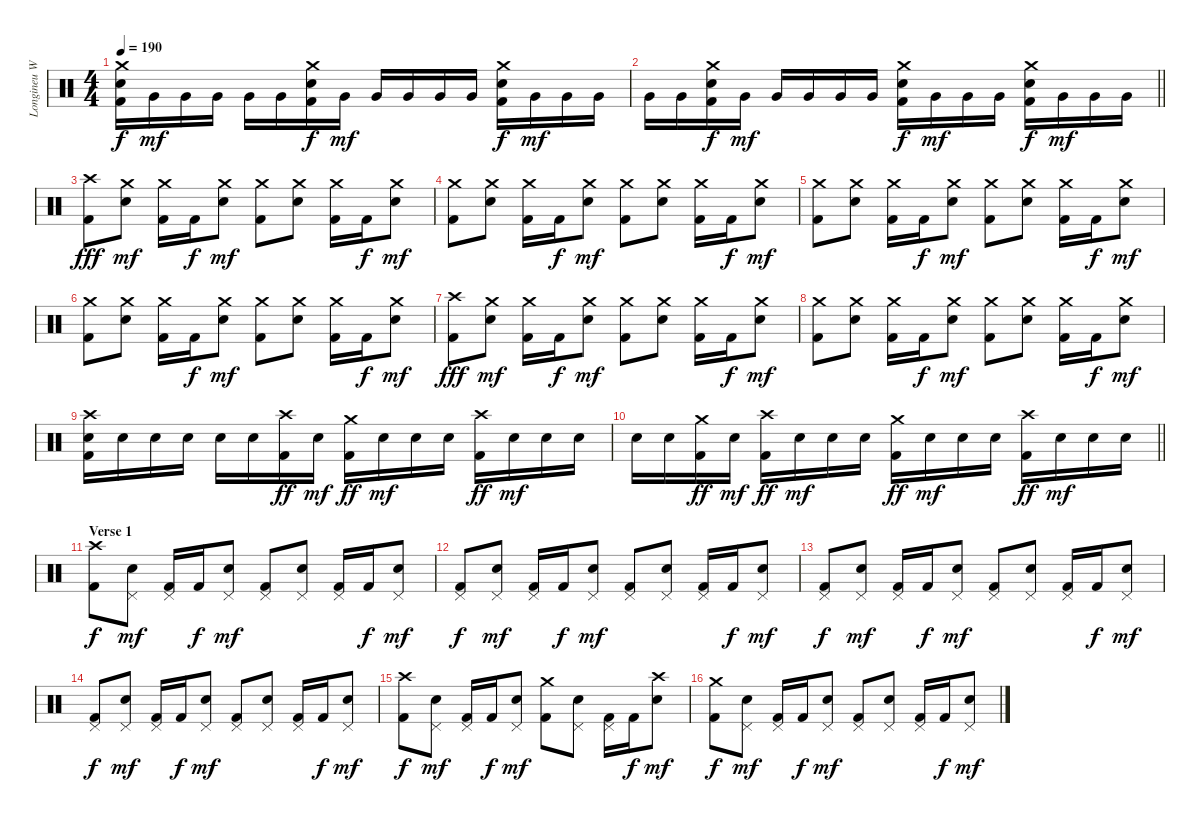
\track ("Longineu W. Parsons III" "Longineu W") {instrument percussion}
\staff {score}
\articulation defaults
\ts (4 4)
\tempo 190
\clef neutral
\ks c
("Crash medium (hit)" "Electric Snare (hit)" "Kick (hit) 2").16{dy f} "Very Low Tom (hit)".16{dy mf} "Very Low Tom (hit)".16 "Very Low Tom (hit)".16 "Very Low Tom (hit)".16 "Very Low Tom (hit)".16 ("Crash medium (hit)" "Electric Snare (hit)" "Kick (hit) 2").16{dy f} "Very Low Tom (hit)".16{dy mf} "Very Low Tom (hit)".16 "Very Low Tom (hit)".16 "Very Low Tom (hit)".16 "Very Low Tom (hit)".16 ("Crash medium (hit)" "Electric Snare (hit)" "Kick (hit) 2").16{dy f} "Very Low Tom (hit)".16{dy mf} "Very Low Tom (hit)".16 "Very Low Tom (hit)".16 |
\barLineRight lightlight "Very Low Tom (hit)".16 "Very Low Tom (hit)".16
("Crash medium (hit)" "Electric Snare (hit)" "Kick (hit) 2").16{dy f} "Very Low Tom (hit)".16{dy mf} "Very Low Tom (hit)".16 "Very Low Tom (hit)".16 "Very Low Tom (hit)".16 "Very Low Tom (hit)".16 ("Crash medium (hit)" "Electric Snare (hit)" "Kick (hit) 2").16{dy f} "Very Low Tom (hit)".16{dy mf} "Very Low Tom (hit)".16 "Very Low Tom (hit)".16 ("Crash medium (hit)" "Electric Snare (hit)" "Kick (hit) 2").16{dy f} "Very Low Tom (hit)".16{dy mf} "Very Low Tom (hit)".16 "Very Low Tom (hit)".16 |
("Crash high (hit)" "Kick (hit) 2").8{dy fff} ("Crash medium (hit)" "Electric Snare (hit)").8{dy mf} ("Crash medium (hit)" "Kick (hit) 2").16 "Kick (hit) 2".16{dy f} ("Crash medium (hit)" "Electric Snare (hit)").8{dy mf} ("Crash medium (hit)" "Kick (hit) 2").8 ("Crash medium (hit)" "Electric Snare (hit)").8 ("Crash medium (hit)" "Kick (hit) 2").16 "Kick (hit) 2".16{dy f} ("Crash medium (hit)" "Electric Snare (hit)").8{dy mf} |
("Crash medium (hit)" "Kick (hit) 2").8 ("Crash medium (hit)" "Electric Snare (hit)").8 ("Crash medium (hit)" "Kick (hit) 2").16 "Kick (hit) 2".16{dy f} ("Crash medium (hit)" "Electric Snare (hit)").8{dy mf} ("Crash medium (hit)" "Kick (hit) 2").8 ("Crash medium (hit)" "Electric Snare (hit)").8 ("Crash medium (hit)" "Kick (hit) 2").16 "Kick (hit) 2".16{dy f} ("Crash medium (hit)" "Electric Snare (hit)").8{dy mf} |
("Crash medium (hit)" "Kick (hit) 2").8 ("Crash medium (hit)" "Electric Snare (hit)").8 ("Crash medium (hit)" "Kick (hit) 2").16 "Kick (hit) 2".16{dy f} ("Crash medium (hit)" "Electric Snare (hit)").8{dy mf} ("Crash medium (hit)" "Kick (hit) 2").8 ("Crash medium (hit)" "Electric Snare (hit)").8 ("Crash medium (hit)" "Kick (hit) 2").16 "Kick (hit) 2".16{dy f} ("Crash medium (hit)" "Electric Snare (hit)").8{dy mf} |
("Crash medium (hit)" "Kick (hit) 2").8 ("Crash medium (hit)" "Electric Snare (hit)").8 ("Crash medium (hit)" "Kick (hit) 2").16 "Kick (hit) 2".16{dy f} ("Crash medium (hit)" "Electric Snare (hit)").8{dy mf} ("Crash medium (hit)" "Kick (hit) 2").8 ("Crash medium (hit)" "Electric Snare (hit)").8 ("Crash medium (hit)" "Kick (hit) 2").16 "Kick (hit) 2".16{dy f} ("Crash medium (hit)" "Electric Snare (hit)").8{dy mf} |
("Crash high (hit)" "Kick (hit) 2").8{dy fff} ("Crash medium (hit)" "Electric Snare (hit)").8{dy mf} ("Crash medium (hit)" "Kick (hit) 2").16 "Kick (hit) 2".16{dy f} ("Crash medium (hit)" "Electric Snare (hit)").8{dy mf} ("Crash medium (hit)" "Kick (hit) 2").8 ("Crash medium (hit)" "Electric Snare (hit)").8 ("Crash medium (hit)" "Kick (hit) 2").16 "Kick (hit) 2".16{dy f} ("Crash medium (hit)" "Electric Snare (hit)").8{dy mf} |
("Crash medium (hit)" "Kick (hit) 2").8 ("Crash medium (hit)" "Electric Snare (hit)").8 ("Crash medium (hit)" "Kick (hit) 2").16 "Kick (hit) 2".16{dy f} ("Crash medium (hit)" "Electric Snare (hit)").8{dy mf} ("Crash medium (hit)" "Kick (hit) 2").8 ("Crash medium (hit)" "Electric Snare (hit)").8 ("Crash medium (hit)" "Kick (hit) 2").16 "Kick (hit) 2".16{dy f} ("Crash medium (hit)" "Electric Snare (hit)").8{dy mf} |
("Crash high (hit)" "Electric Snare (hit)" "Kick (hit) 2").16 "Electric Snare (hit)".16 "Electric Snare (hit)".16 "Electric Snare (hit)".16 "Electric Snare (hit)".16 "Electric Snare (hit)".16 ("Crash high (hit)" "Kick (hit) 2").16{dy ff} "Electric Snare (hit)".16{dy mf} ("Crash medium (hit)" "Kick (hit) 2").16{dy ff} "Electric Snare (hit)".16{dy mf} "Electric Snare (hit)".16 "Electric Snare (hit)".16 ("Crash high (hit)" "Kick (hit) 2").16{dy ff} "Electric Snare (hit)".16{dy mf} "Electric Snare (hit)".16 "Electric Snare (hit)".16 |
\barLineRight lightlight "Electric Snare (hit)".16 "Electric Snare (hit)".16
("Crash medium (hit)" "Kick (hit) 2").16{dy ff} "Electric Snare (hit)".16{dy mf} ("Crash high (hit)" "Kick (hit) 2").16{dy ff} "Electric Snare (hit)".16{dy mf} "Electric Snare (hit)".16 "Electric Snare (hit)".16 ("Crash medium (hit)" "Kick (hit) 2").16{dy ff} "Electric Snare (hit)".16{dy mf} "Electric Snare (hit)".16 "Electric Snare (hit)".16 ("Crash high (hit)" "Kick (hit) 2").16{dy ff} "Electric Snare (hit)".16{dy mf} "Electric Snare (hit)".16 "Electric Snare (hit)".16 |
\section ("" "Verse 1")
("Crash high (hit)" "Kick (hit) 2").8{dy f} ("Pedal Hi-Hat (hit)" "Electric Snare (hit)").8{dy mf} ("Pedal Hi-Hat (hit)" "Kick (hit) 2").16 "Kick (hit) 2".16{dy f} ("Pedal Hi-Hat (hit)" "Electric Snare (hit)").8{dy mf} ("Pedal Hi-Hat (hit)" "Kick (hit) 2").8 ("Pedal Hi-Hat (hit)" "Electric Snare (hit)").8 ("Pedal Hi-Hat (hit)" "Kick (hit) 2").16 "Kick (hit) 2".16{dy f} ("Pedal Hi-Hat (hit)" "Electric Snare (hit)").8{dy mf} |
("Pedal Hi-Hat (hit)" "Kick (hit) 2").8{dy f} ("Pedal Hi-Hat (hit)" "Electric Snare (hit)").8{dy mf} ("Pedal Hi-Hat (hit)" "Kick (hit) 2").16 "Kick (hit) 2".16{dy f} ("Pedal Hi-Hat (hit)" "Electric Snare (hit)").8{dy mf} ("Pedal Hi-Hat (hit)" "Kick (hit) 2").8 ("Pedal Hi-Hat (hit)" "Electric Snare (hit)").8 ("Pedal Hi-Hat (hit)" "Kick (hit) 2").16 "Kick (hit) 2".16{dy f} ("Pedal Hi-Hat (hit)" "Electric Snare (hit)").8{dy mf} |
("Pedal Hi-Hat (hit)" "Kick (hit) 2").8{dy f} ("Pedal Hi-Hat (hit)" "Electric Snare (hit)").8{dy mf} ("Pedal Hi-Hat (hit)" "Kick (hit) 2").16 "Kick (hit) 2".16{dy f} ("Pedal Hi-Hat (hit)" "Electric Snare (hit)").8{dy mf} ("Pedal Hi-Hat (hit)" "Kick (hit) 2").8 ("Pedal Hi-Hat (hit)" "Electric Snare (hit)").8 ("Pedal Hi-Hat (hit)" "Kick (hit) 2").16 "Kick (hit) 2".16{dy f} ("Pedal Hi-Hat (hit)" "Electric Snare (hit)").8{dy mf} |
("Pedal Hi-Hat (hit)" "Kick (hit) 2").8{dy f} ("Pedal Hi-Hat (hit)" "Electric Snare (hit)").8{dy mf} ("Pedal Hi-Hat (hit)" "Kick (hit) 2").16 "Kick (hit) 2".16{dy f} ("Pedal Hi-Hat (hit)" "Electric Snare (hit)").8{dy mf} ("Pedal Hi-Hat (hit)" "Kick (hit) 2").8 ("Pedal Hi-Hat (hit)" "Electric Snare (hit)").8 ("Pedal Hi-Hat (hit)" "Kick (hit) 2").16 "Kick (hit) 2".16{dy f} ("Pedal Hi-Hat (hit)" "Electric Snare (hit)").8{dy mf} |
("Crash high (hit)" "Kick (hit) 2").8{dy f} ("Pedal Hi-Hat (hit)" "Electric Snare (hit)").8{dy mf} ("Pedal Hi-Hat (hit)" "Kick (hit) 2").16 "Kick (hit) 2".16{dy f} ("Pedal Hi-Hat (hit)" "Electric Snare (hit)").8{dy mf} ("Crash medium (hit)" "Kick (hit) 2").8 ("Pedal Hi-Hat (hit)" "Electric Snare (hit)").8 ("Pedal Hi-Hat (hit)" "Kick (hit) 2").16 "Kick (hit) 2".16{dy f} ("Crash high (hit)" "Electric Snare (hit)").8{dy mf} |
("Crash medium (hit)" "Kick (hit) 2").8{dy f} ("Pedal Hi-Hat (hit)" "Electric Snare (hit)").8{dy mf} ("Pedal Hi-Hat (hit)" "Kick (hit) 2").16 "Kick (hit) 2".16{dy f} ("Pedal Hi-Hat (hit)" "Electric Snare (hit)").8{dy mf} ("Pedal Hi-Hat (hit)" "Kick (hit) 2").8 ("Pedal Hi-Hat (hit)" "Electric Snare (hit)").8 ("Pedal Hi-Hat (hit)" "Kick (hit) 2").16 "Kick (hit) 2".16{dy f} ("Pedal Hi-Hat (hit)" "Electric Snare (hit)").8{dy mf}
